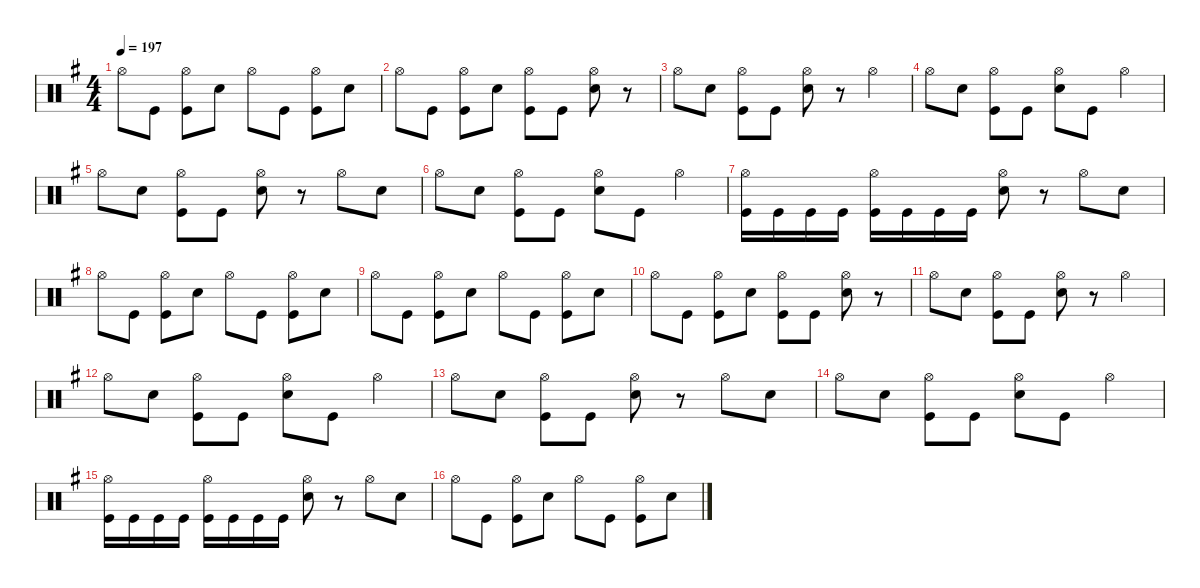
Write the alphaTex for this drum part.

\defaultSystemsLayout 4
\hideDynamics
\bracketExtendMode nobrackets
\singleTrackTrackNamePolicy hidden
\multiTrackTrackNamePolicy hidden
\firstSystemTrackNameMode fullname
\firstSystemTrackNameOrientation horizontal
\otherSystemsTrackNameOrientation horizontal
\track ("Drums" "drm.") {defaultSystemsLayout 4 instrument percussion}
\staff {score}
\articulation defaults
\ts (4 4)
\tempo 197
\clef neutral
\ks eminor "Hi-Hat (open)"{acc forcenatural}.8{dy mf beam Down} "Kick (hit)"{acc forcenatural}.8{dy f beam Down}
("Hi-Hat (open)"{acc forcenatural} "Kick (hit)"{acc forcenatural}).8{dy mf beam Down} "Snare (hit) 2"{acc forcenatural}.8{dy f beam Down} "Hi-Hat (open)"{acc forcenatural}.8{dy mf beam Down} "Kick (hit)"{acc forcenatural}.8{dy f beam Down} ("Hi-Hat (open)"{acc forcenatural} "Kick (hit)"{acc forcenatural}).8{dy mf beam Down} "Snare (hit) 2"{acc forcenatural}.8{dy f beam Down} |
"Hi-Hat (open)"{acc forcenatural}.8{dy mf beam Down} "Kick (hit)"{acc forcenatural}.8{dy f beam Down} ("Hi-Hat (open)"{acc forcenatural} "Kick (hit)"{acc forcenatural}).8{dy mf beam Down} "Snare (hit) 2"{acc forcenatural}.8{dy f beam Down} ("Hi-Hat (open)"{acc forcenatural} "Kick (hit)"{acc forcenatural}).8{dy mf beam Down} "Kick (hit)"{acc forcenatural}.8{dy f beam Down} ("Hi-Hat (open)"{acc forcenatural} "Snare (hit) 2"{acc forcenatural}).8{dy mf beam Down} r.8{beam Down} |
"Hi-Hat (open)"{acc forcenatural}.8{beam Down} "Snare (hit) 2"{acc forcenatural}.8{dy f beam Down} ("Hi-Hat (open)"{acc forcenatural} "Kick (hit)"{acc forcenatural}).8{dy mf beam Down} "Kick (hit)"{acc forcenatural}.8{dy f beam Down} ("Hi-Hat (open)"{acc forcenatural} "Snare (hit) 2"{acc forcenatural}).8{dy mf beam Down} r.8{beam Down} "Hi-Hat (open)"{acc forcenatural}.4{beam Down} |
"Hi-Hat (open)"{acc forcenatural}.8{beam Down} "Snare (hit) 2"{acc forcenatural}.8{dy f beam Down} ("Hi-Hat (open)"{acc forcenatural} "Kick (hit)"{acc forcenatural}).8{dy mf beam Down} "Kick (hit)"{acc forcenatural}.8{dy f beam Down} ("Hi-Hat (open)"{acc forcenatural} "Snare (hit) 2"{acc forcenatural}).8{dy mf beam Down} "Kick (hit)"{acc forcenatural}.8{dy f beam Down} "Hi-Hat (open)"{acc forcenatural}.4{dy mf beam Down} |
"Hi-Hat (open)"{acc forcenatural}.8{beam Down} "Snare (hit) 2"{acc forcenatural}.8{dy f beam Down} ("Hi-Hat (open)"{acc forcenatural} "Kick (hit)"{acc forcenatural}).8{dy mf beam Down} "Kick (hit)"{acc forcenatural}.8{dy f beam Down} ("Hi-Hat (open)"{acc forcenatural} "Snare (hit) 2"{acc forcenatural}).8{dy mf beam Down} r.8{beam Down} "Hi-Hat (open)"{acc forcenatural}.8{beam Down} "Snare (hit) 2"{acc forcenatural}.8{dy f beam Down} |
"Hi-Hat (open)"{acc forcenatural}.8{dy mf beam Down} "Snare (hit) 2"{acc forcenatural}.8{dy f beam Down} ("Hi-Hat (open)"{acc forcenatural} "Kick (hit)"{acc forcenatural}).8{dy mf beam Down} "Kick (hit)"{acc forcenatural}.8{dy f beam Down} ("Hi-Hat (open)"{acc forcenatural} "Snare (hit) 2"{acc forcenatural}).8{dy mf beam Down} "Kick (hit)"{acc forcenatural}.8{dy f beam Down} "Hi-Hat (open)"{acc forcenatural}.4{dy mf beam Down} |
("Hi-Hat (open)"{acc forcenatural} "Kick (hit)"{acc forcenatural}).16{beam Down} "Kick (hit)"{acc forcenatural}.16{dy f beam Down} "Kick (hit)"{acc forcenatural}.16{beam Down} "Kick (hit)"{acc forcenatural}.16{beam Down} ("Hi-Hat (open)"{acc forcenatural} "Kick (hit)"{acc forcenatural}).16{dy mf beam Down} "Kick (hit)"{acc forcenatural}.16{dy f beam Down} "Kick (hit)"{acc forcenatural}.16{beam Down} "Kick (hit)"{acc forcenatural}.16{beam Down} ("Hi-Hat (open)"{acc forcenatural} "Snare (hit) 2"{acc forcenatural}).8{dy mf beam Down} r.8{beam Down} "Hi-Hat (open)"{acc forcenatural}.8{beam Down} "Snare (hit) 2"{acc forcenatural}.8{dy f beam Down} |
"Hi-Hat (open)"{acc forcenatural}.8{dy mf beam Down} "Kick (hit)"{acc forcenatural}.8{dy f beam Down} ("Hi-Hat (open)"{acc forcenatural} "Kick (hit)"{acc forcenatural}).8{dy mf beam Down} "Snare (hit) 2"{acc forcenatural}.8{dy f beam Down} "Hi-Hat (open)"{acc forcenatural}.8{dy mf beam Down} "Kick (hit)"{acc forcenatural}.8{dy f beam Down} ("Hi-Hat (open)"{acc forcenatural} "Kick (hit)"{acc forcenatural}).8{dy mf beam Down} "Snare (hit) 2"{acc forcenatural}.8{dy f beam Down} |
"Hi-Hat (open)"{acc forcenatural}.8{dy mf beam Down} "Kick (hit)"{acc forcenatural}.8{dy f beam Down} ("Hi-Hat (open)"{acc forcenatural} "Kick (hit)"{acc forcenatural}).8{dy mf beam Down} "Snare (hit) 2"{acc forcenatural}.8{dy f beam Down} "Hi-Hat (open)"{acc forcenatural}.8{dy mf beam Down} "Kick (hit)"{acc forcenatural}.8{dy f beam Down} ("Hi-Hat (open)"{acc forcenatural} "Kick (hit)"{acc forcenatural}).8{dy mf beam Down} "Snare (hit) 2"{acc forcenatural}.8{dy f beam Down} |
"Hi-Hat (open)"{acc forcenatural}.8{dy mf beam Down} "Kick (hit)"{acc forcenatural}.8{dy f beam Down} ("Hi-Hat (open)"{acc forcenatural} "Kick (hit)"{acc forcenatural}).8{dy mf beam Down} "Snare (hit) 2"{acc forcenatural}.8{dy f beam Down} ("Hi-Hat (open)"{acc forcenatural} "Kick (hit)"{acc forcenatural}).8{dy mf beam Down} "Kick (hit)"{acc forcenatural}.8{dy f beam Down} ("Hi-Hat (open)"{acc forcenatural} "Snare (hit) 2"{acc forcenatural}).8{dy mf beam Down} r.8{beam Down} |
"Hi-Hat (open)"{acc forcenatural}.8{beam Down} "Snare (hit) 2"{acc forcenatural}.8{dy f beam Down} ("Hi-Hat (open)"{acc forcenatural} "Kick (hit)"{acc forcenatural}).8{dy mf beam Down} "Kick (hit)"{acc forcenatural}.8{dy f beam Down} ("Hi-Hat (open)"{acc forcenatural} "Snare (hit) 2"{acc forcenatural}).8{dy mf beam Down} r.8{beam Down} "Hi-Hat (open)"{acc forcenatural}.4{beam Down} |
"Hi-Hat (open)"{acc forcenatural}.8{beam Down} "Snare (hit) 2"{acc forcenatural}.8{dy f beam Down} ("Hi-Hat (open)"{acc forcenatural} "Kick (hit)"{acc forcenatural}).8{dy mf beam Down} "Kick (hit)"{acc forcenatural}.8{dy f beam Down} ("Hi-Hat (open)"{acc forcenatural} "Snare (hit) 2"{acc forcenatural}).8{dy mf beam Down} "Kick (hit)"{acc forcenatural}.8{dy f beam Down} "Hi-Hat (open)"{acc forcenatural}.4{dy mf beam Down} |
"Hi-Hat (open)"{acc forcenatural}.8{beam Down} "Snare (hit) 2"{acc forcenatural}.8{dy f beam Down} ("Hi-Hat (open)"{acc forcenatural} "Kick (hit)"{acc forcenatural}).8{dy mf beam Down} "Kick (hit)"{acc forcenatural}.8{dy f beam Down} ("Hi-Hat (open)"{acc forcenatural} "Snare (hit) 2"{acc forcenatural}).8{dy mf beam Down} r.8{beam Down} "Hi-Hat (open)"{acc forcenatural}.8{beam Down} "Snare (hit) 2"{acc forcenatural}.8{dy f beam Down} |
"Hi-Hat (open)"{acc forcenatural}.8{dy mf beam Down} "Snare (hit) 2"{acc forcenatural}.8{dy f beam Down} ("Hi-Hat (open)"{acc forcenatural} "Kick (hit)"{acc forcenatural}).8{dy mf beam Down} "Kick (hit)"{acc forcenatural}.8{dy f beam Down} ("Hi-Hat (open)"{acc forcenatural} "Snare (hit) 2"{acc forcenatural}).8{dy mf beam Down} "Kick (hit)"{acc forcenatural}.8{dy f beam Down} "Hi-Hat (open)"{acc forcenatural}.4{dy mf beam Down} |
("Hi-Hat (open)"{acc forcenatural} "Kick (hit)"{acc forcenatural}).16{beam Down} "Kick (hit)"{acc forcenatural}.16{dy f beam Down} "Kick (hit)"{acc forcenatural}.16{beam Down} "Kick (hit)"{acc forcenatural}.16{beam Down} ("Hi-Hat (open)"{acc forcenatural} "Kick (hit)"{acc forcenatural}).16{dy mf beam Down} "Kick (hit)"{acc forcenatural}.16{dy f beam Down} "Kick (hit)"{acc forcenatural}.16{beam Down} "Kick (hit)"{acc forcenatural}.16{beam Down} ("Hi-Hat (open)"{acc forcenatural} "Snare (hit) 2"{acc forcenatural}).8{dy mf beam Down} r.8{beam Down} "Hi-Hat (open)"{acc forcenatural}.8{beam Down} "Snare (hit) 2"{acc forcenatural}.8{dy f beam Down} |
"Hi-Hat (open)"{acc forcenatural}.8{dy mf beam Down} "Kick (hit)"{acc forcenatural}.8{dy f beam Down} ("Hi-Hat (open)"{acc forcenatural} "Kick (hit)"{acc forcenatural}).8{dy mf beam Down} "Snare (hit) 2"{acc forcenatural}.8{dy f beam Down} "Hi-Hat (open)"{acc forcenatural}.8{dy mf beam Down} "Kick (hit)"{acc forcenatural}.8{dy f beam Down} ("Hi-Hat (open)"{acc forcenatural} "Kick (hit)"{acc forcenatural}).8{dy mf beam Down} "Snare (hit) 2"{acc forcenatural}.8{dy f beam Down}
